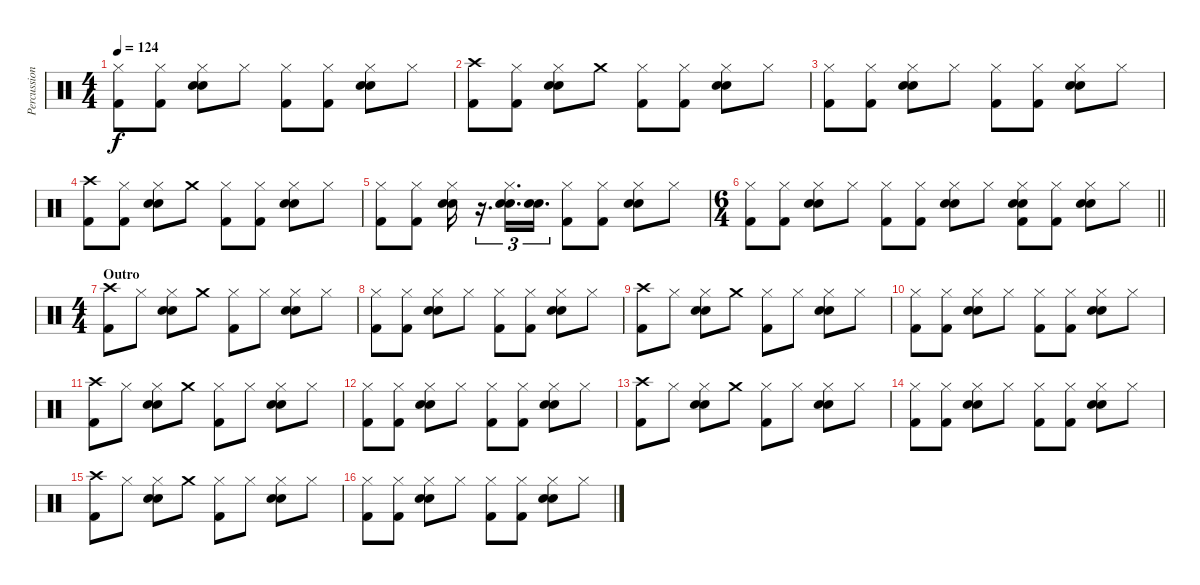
\track ("Percussion" "Percussion") {instrument percussion}
\staff {score}
\articulation defaults
\ts (4 4)
\tempo 124
\clef neutral
\ks c
("Hi-Hat (closed)" "Kick (hit) 2").8{dy f} ("Hi-Hat (closed)" "Kick (hit) 2").8 ("Hi-Hat (closed)" "Snare (hit) 2" "Electric Snare (hit)").8 "Hi-Hat (closed)".8 ("Hi-Hat (closed)" "Kick (hit) 2").8 ("Hi-Hat (closed)" "Kick (hit) 2").8 ("Hi-Hat (closed)" "Snare (hit) 2" "Electric Snare (hit)").8 "Hi-Hat (closed)".8 |
("Crash high (hit)" "Kick (hit) 2").8 ("Hi-Hat (closed)" "Kick (hit) 2").8 ("Hi-Hat (closed)" "Snare (hit) 2" "Electric Snare (hit)").8 "Crash medium (hit)".8 ("Hi-Hat (closed)" "Kick (hit) 2").8 ("Hi-Hat (closed)" "Kick (hit) 2").8 ("Hi-Hat (closed)" "Snare (hit) 2" "Electric Snare (hit)").8 "Hi-Hat (closed)".8 |
("Hi-Hat (closed)" "Kick (hit) 2").8 ("Hi-Hat (closed)" "Kick (hit) 2").8 ("Hi-Hat (closed)" "Snare (hit) 2" "Electric Snare (hit)").8 "Hi-Hat (closed)".8 ("Hi-Hat (closed)" "Kick (hit) 2").8 ("Hi-Hat (closed)" "Kick (hit) 2").8 ("Hi-Hat (closed)" "Snare (hit) 2" "Electric Snare (hit)").8 "Hi-Hat (closed)".8 |
("Crash high (hit)" "Kick (hit) 2").8 ("Hi-Hat (closed)" "Kick (hit) 2").8 ("Hi-Hat (closed)" "Snare (hit) 2" "Electric Snare (hit)").8 "Crash medium (hit)".8 ("Hi-Hat (closed)" "Kick (hit) 2").8 ("Hi-Hat (closed)" "Kick (hit) 2").8 ("Hi-Hat (closed)" "Snare (hit) 2" "Electric Snare (hit)").8 "Hi-Hat (closed)".8 |
("Hi-Hat (closed)" "Kick (hit) 2").8 ("Hi-Hat (closed)" "Kick (hit) 2").8 ("Hi-Hat (closed)" "Snare (hit) 2" "Electric Snare (hit)").16 r.16{d tu (3 2)} ("Hi-Hat (closed)" "Snare (hit) 2" "Electric Snare (hit)").16{d tu (3 2)} ("Snare (hit) 2" "Electric Snare (hit)").16{d tu (3 2)} ("Hi-Hat (closed)" "Kick (hit) 2").8 ("Hi-Hat (closed)" "Kick (hit) 2").8 ("Hi-Hat (closed)" "Snare (hit) 2" "Electric Snare (hit)").8 "Hi-Hat (closed)".8 |
\ts (6 4)
\barLineRight lightlight
("Hi-Hat (closed)" "Kick (hit) 2").8 ("Hi-Hat (closed)" "Kick (hit) 2").8 ("Hi-Hat (closed)" "Snare (hit) 2" "Electric Snare (hit)").8 "Hi-Hat (closed)".8 ("Hi-Hat (closed)" "Kick (hit) 2").8 ("Hi-Hat (closed)" "Kick (hit) 2").8 ("Hi-Hat (closed)" "Snare (hit) 2" "Electric Snare (hit)").8 "Hi-Hat (closed)".8 ("Hi-Hat (closed)" "Snare (hit) 2" "Electric Snare (hit)" "Kick (hit) 2").8 ("Hi-Hat (closed)" "Kick (hit) 2").8 ("Hi-Hat (closed)" "Snare (hit) 2" "Electric Snare (hit)").8 "Hi-Hat (closed)".8 |
\ts (4 4)
\section ("" "Outro")
("Crash high (hit)" "Kick (hit) 2").8 "Hi-Hat (closed)".8 ("Hi-Hat (closed)" "Snare (hit) 2" "Electric Snare (hit)").8 "Crash medium (hit)".8 ("Hi-Hat (closed)" "Kick (hit) 2").8 "Hi-Hat (closed)".8 ("Hi-Hat (closed)" "Snare (hit) 2" "Electric Snare (hit)").8 "Hi-Hat (closed)".8 |
("Hi-Hat (closed)" "Kick (hit) 2").8 ("Hi-Hat (closed)" "Kick (hit) 2").8 ("Hi-Hat (closed)" "Snare (hit) 2" "Electric Snare (hit)").8 "Hi-Hat (closed)".8 ("Hi-Hat (closed)" "Kick (hit) 2").8 ("Hi-Hat (closed)" "Kick (hit) 2").8 ("Hi-Hat (closed)" "Snare (hit) 2" "Electric Snare (hit)").8 "Hi-Hat (closed)".8 |
("Crash high (hit)" "Kick (hit) 2").8 "Hi-Hat (closed)".8 ("Hi-Hat (closed)" "Snare (hit) 2" "Electric Snare (hit)").8 "Crash medium (hit)".8 ("Hi-Hat (closed)" "Kick (hit) 2").8 "Hi-Hat (closed)".8 ("Hi-Hat (closed)" "Snare (hit) 2" "Electric Snare (hit)").8 "Hi-Hat (closed)".8 |
("Hi-Hat (closed)" "Kick (hit) 2").8 ("Hi-Hat (closed)" "Kick (hit) 2").8 ("Hi-Hat (closed)" "Snare (hit) 2" "Electric Snare (hit)").8 "Hi-Hat (closed)".8 ("Hi-Hat (closed)" "Kick (hit) 2").8 ("Hi-Hat (closed)" "Kick (hit) 2").8 ("Hi-Hat (closed)" "Snare (hit) 2" "Electric Snare (hit)").8 "Hi-Hat (closed)".8 |
("Crash high (hit)" "Kick (hit) 2").8 "Hi-Hat (closed)".8 ("Hi-Hat (closed)" "Snare (hit) 2" "Electric Snare (hit)").8 "Crash medium (hit)".8 ("Hi-Hat (closed)" "Kick (hit) 2").8 "Hi-Hat (closed)".8 ("Hi-Hat (closed)" "Snare (hit) 2" "Electric Snare (hit)").8 "Hi-Hat (closed)".8 |
("Hi-Hat (closed)" "Kick (hit) 2").8 ("Hi-Hat (closed)" "Kick (hit) 2").8 ("Hi-Hat (closed)" "Snare (hit) 2" "Electric Snare (hit)").8 "Hi-Hat (closed)".8 ("Hi-Hat (closed)" "Kick (hit) 2").8 ("Hi-Hat (closed)" "Kick (hit) 2").8 ("Hi-Hat (closed)" "Snare (hit) 2" "Electric Snare (hit)").8 "Hi-Hat (closed)".8 |
("Crash high (hit)" "Kick (hit) 2").8 "Hi-Hat (closed)".8 ("Hi-Hat (closed)" "Snare (hit) 2" "Electric Snare (hit)").8 "Crash medium (hit)".8 ("Hi-Hat (closed)" "Kick (hit) 2").8 "Hi-Hat (closed)".8 ("Hi-Hat (closed)" "Snare (hit) 2" "Electric Snare (hit)").8 "Hi-Hat (closed)".8 |
("Hi-Hat (closed)" "Kick (hit) 2").8 ("Hi-Hat (closed)" "Kick (hit) 2").8 ("Hi-Hat (closed)" "Snare (hit) 2" "Electric Snare (hit)").8 "Hi-Hat (closed)".8 ("Hi-Hat (closed)" "Kick (hit) 2").8 ("Hi-Hat (closed)" "Kick (hit) 2").8 ("Hi-Hat (closed)" "Snare (hit) 2" "Electric Snare (hit)").8 "Hi-Hat (closed)".8 |
("Crash high (hit)" "Kick (hit) 2").8 "Hi-Hat (closed)".8 ("Hi-Hat (closed)" "Snare (hit) 2" "Electric Snare (hit)").8 "Crash medium (hit)".8 ("Hi-Hat (closed)" "Kick (hit) 2").8 "Hi-Hat (closed)".8 ("Hi-Hat (closed)" "Snare (hit) 2" "Electric Snare (hit)").8 "Hi-Hat (closed)".8 |
("Hi-Hat (closed)" "Kick (hit) 2").8 ("Hi-Hat (closed)" "Kick (hit) 2").8 ("Hi-Hat (closed)" "Snare (hit) 2" "Electric Snare (hit)").8 "Hi-Hat (closed)".8 ("Hi-Hat (closed)" "Kick (hit) 2").8 ("Hi-Hat (closed)" "Kick (hit) 2").8 ("Hi-Hat (closed)" "Snare (hit) 2" "Electric Snare (hit)").8 "Hi-Hat (closed)".8
